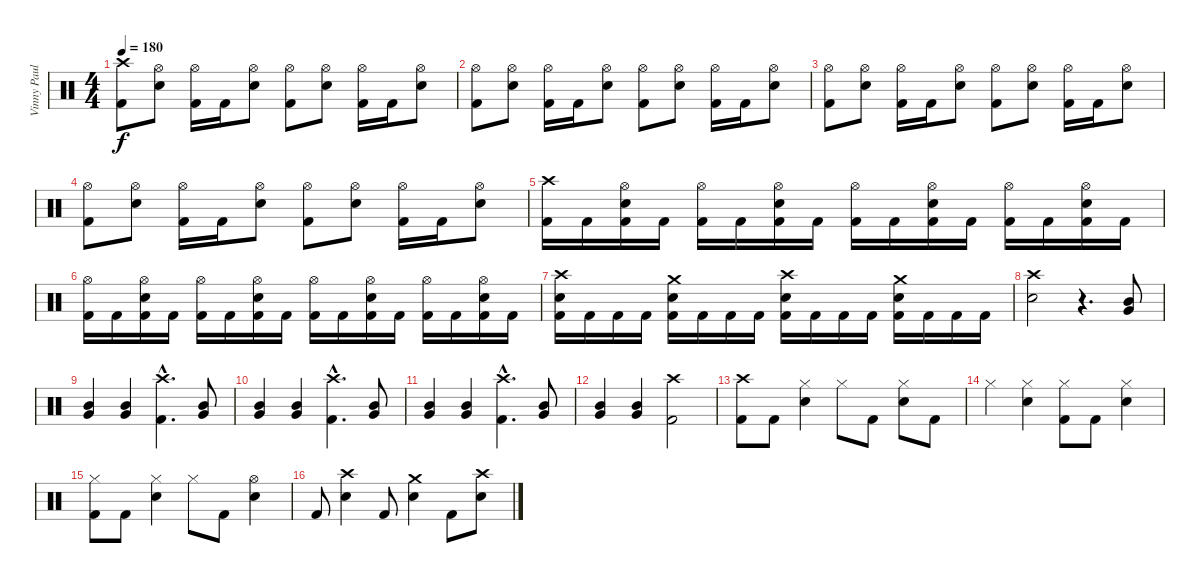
\track ("Vinny Paul" "Vinny Paul") {instrument percussion}
\staff {score}
\articulation defaults
\ts (4 4)
\tempo 180
\clef neutral
\ks c
("Crash high (hit)" "Kick (hit) 2").8{dy f} ("Hi-Hat (open)" "Electric Snare (hit)").8 ("Hi-Hat (open)" "Kick (hit) 2").16 "Kick (hit) 2".16 ("Hi-Hat (open)" "Electric Snare (hit)").8 ("Hi-Hat (open)" "Kick (hit) 2").8 ("Hi-Hat (open)" "Electric Snare (hit)").8 ("Hi-Hat (open)" "Kick (hit) 2").16 "Kick (hit) 2".16 ("Hi-Hat (open)" "Electric Snare (hit)").8 |
("Hi-Hat (open)" "Kick (hit) 2").8 ("Hi-Hat (open)" "Electric Snare (hit)").8 ("Hi-Hat (open)" "Kick (hit) 2").16 "Kick (hit) 2".16 ("Hi-Hat (open)" "Electric Snare (hit)").8 ("Hi-Hat (open)" "Kick (hit) 2").8 ("Hi-Hat (open)" "Electric Snare (hit)").8 ("Hi-Hat (open)" "Kick (hit) 2").16 "Kick (hit) 2".16 ("Hi-Hat (open)" "Electric Snare (hit)").8 |
("Hi-Hat (open)" "Kick (hit) 2").8 ("Hi-Hat (open)" "Electric Snare (hit)").8 ("Hi-Hat (open)" "Kick (hit) 2").16 "Kick (hit) 2".16 ("Hi-Hat (open)" "Electric Snare (hit)").8 ("Hi-Hat (open)" "Kick (hit) 2").8 ("Hi-Hat (open)" "Electric Snare (hit)").8 ("Hi-Hat (open)" "Kick (hit) 2").16 "Kick (hit) 2".16 ("Hi-Hat (open)" "Electric Snare (hit)").8 |
("Hi-Hat (open)" "Kick (hit) 2").8 ("Hi-Hat (open)" "Electric Snare (hit)").8 ("Hi-Hat (open)" "Kick (hit) 2").16 "Kick (hit) 2".16 ("Hi-Hat (open)" "Electric Snare (hit)").8 ("Hi-Hat (open)" "Kick (hit) 2").8 ("Hi-Hat (open)" "Electric Snare (hit)").8 ("Hi-Hat (open)" "Kick (hit) 2").16 "Kick (hit) 2".16 ("Hi-Hat (open)" "Electric Snare (hit)").8 |
("Crash high (hit)" "Kick (hit) 2").16 "Kick (hit) 2".16 ("Hi-Hat (open)" "Electric Snare (hit)" "Kick (hit) 2").16 "Kick (hit) 2".16 ("Hi-Hat (open)" "Kick (hit) 2").16 "Kick (hit) 2".16 ("Hi-Hat (open)" "Electric Snare (hit)" "Kick (hit) 2").16 "Kick (hit) 2".16 ("Hi-Hat (open)" "Kick (hit) 2").16 "Kick (hit) 2".16 ("Hi-Hat (open)" "Electric Snare (hit)" "Kick (hit) 2").16 "Kick (hit) 2".16 ("Hi-Hat (open)" "Kick (hit) 2").16 "Kick (hit) 2".16 ("Hi-Hat (open)" "Electric Snare (hit)" "Kick (hit) 2").16 "Kick (hit) 2".16 |
("Hi-Hat (open)" "Kick (hit) 2").16 "Kick (hit) 2".16 ("Hi-Hat (open)" "Electric Snare (hit)" "Kick (hit) 2").16 "Kick (hit) 2".16 ("Hi-Hat (open)" "Kick (hit) 2").16 "Kick (hit) 2".16 ("Hi-Hat (open)" "Electric Snare (hit)" "Kick (hit) 2").16 "Kick (hit) 2".16 ("Hi-Hat (open)" "Kick (hit) 2").16 "Kick (hit) 2".16 ("Hi-Hat (open)" "Electric Snare (hit)" "Kick (hit) 2").16 "Kick (hit) 2".16 ("Hi-Hat (open)" "Kick (hit) 2").16 "Kick (hit) 2".16 ("Hi-Hat (open)" "Electric Snare (hit)" "Kick (hit) 2").16 "Kick (hit) 2".16 |
("Crash high (hit)" "Electric Snare (hit)" "Kick (hit) 2").16 "Kick (hit) 2".16 "Kick (hit) 2".16 "Kick (hit) 2".16 ("Crash medium (hit)" "Electric Snare (hit)" "Kick (hit) 2").16 "Kick (hit) 2".16 "Kick (hit) 2".16 "Kick (hit) 2".16 ("Crash high (hit)" "Electric Snare (hit)" "Kick (hit) 2").16 "Kick (hit) 2".16 "Kick (hit) 2".16 "Kick (hit) 2".16 ("Crash medium (hit)" "Electric Snare (hit)" "Kick (hit) 2").16 "Kick (hit) 2".16 "Kick (hit) 2".16 "Kick (hit) 2".16 |
("Crash high (hit)" "Electric Snare (hit)").2 r.4{d} ("Mid Tom (hit)" "Very Low Tom (hit)").8 |
("Mid Tom (hit)" "Very Low Tom (hit)").4 ("Mid Tom (hit)" "Very Low Tom (hit)").4 ("Crash high (hit)"{hac} "Kick (hit) 2"{hac}).4{d} ("Mid Tom (hit)" "Very Low Tom (hit)").8 |
("Mid Tom (hit)" "Very Low Tom (hit)").4 ("Mid Tom (hit)" "Very Low Tom (hit)").4 ("Crash high (hit)"{hac} "Kick (hit) 2"{hac}).4{d} ("Mid Tom (hit)" "Very Low Tom (hit)").8 |
("Mid Tom (hit)" "Very Low Tom (hit)").4 ("Mid Tom (hit)" "Very Low Tom (hit)").4 ("Crash high (hit)"{hac} "Kick (hit) 2"{hac}).4{d} ("Mid Tom (hit)" "Very Low Tom (hit)").8 |
("Mid Tom (hit)" "Very Low Tom (hit)").4 ("Mid Tom (hit)" "Very Low Tom (hit)").4 ("Crash high (hit)" "Kick (hit) 2").2 |
("Crash high (hit)" "Kick (hit) 2").8 "Kick (hit) 2".8 ("Hi-Hat (closed)" "Electric Snare (hit)").4 "Hi-Hat (closed)".8 "Kick (hit) 2".8 ("Hi-Hat (closed)" "Electric Snare (hit)").8 "Kick (hit) 2".8 |
"Hi-Hat (closed)".4 ("Hi-Hat (closed)" "Electric Snare (hit)").4 ("Hi-Hat (closed)" "Kick (hit) 2").8 "Kick (hit) 2".8 ("Hi-Hat (closed)" "Electric Snare (hit)").4 |
("Hi-Hat (closed)" "Kick (hit) 2").8 "Kick (hit) 2".8 ("Hi-Hat (closed)" "Electric Snare (hit)").4 "Hi-Hat (closed)".8 "Kick (hit) 2".8 ("Hi-Hat (open)" "Electric Snare (hit)").4 |
"Kick (hit) 2".8 ("Crash high (hit)" "Electric Snare (hit)").4 "Kick (hit) 2".8 ("Crash medium (hit)" "Electric Snare (hit)").4 "Kick (hit) 2".8 ("Crash high (hit)" "Electric Snare (hit)").8
